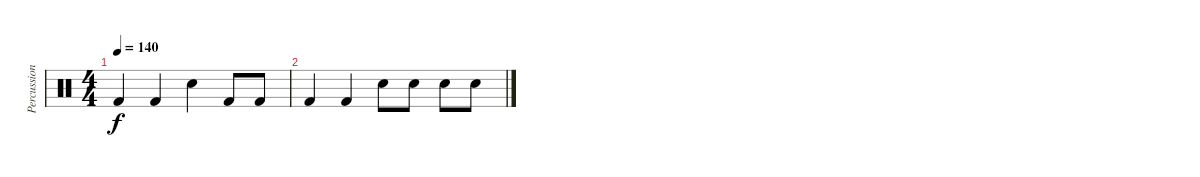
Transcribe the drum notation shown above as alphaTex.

\track ("Percussion" "Percussion") {instrument percussion}
\staff {score}
\articulation defaults
\ts (4 4)
\tempo 140
\clef neutral
\ks c "Kick (hit) 2".4{dy f} "Kick (hit) 2".4 "Snare (hit) 2".4 "Kick (hit) 2".8 "Kick (hit) 2".8
|
"Kick (hit) 2".4 "Kick (hit) 2".4 "Snare (hit) 2".8 "Snare (hit) 2".8 "Snare (hit) 2".8 "Snare (hit) 2".8
